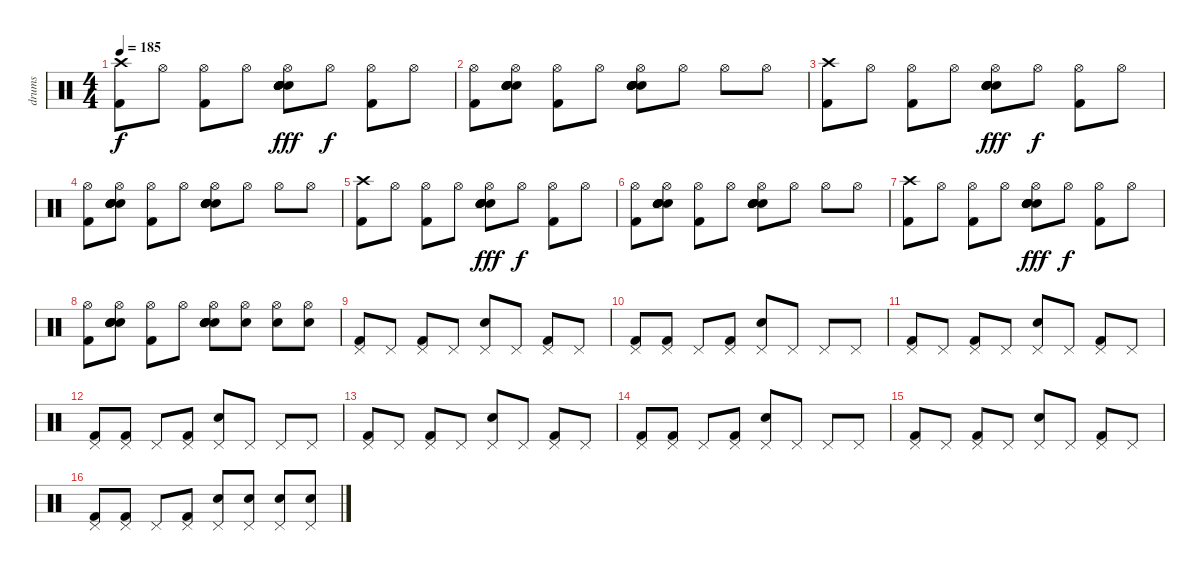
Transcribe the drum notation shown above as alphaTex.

\track ("drums" "drums") {instrument percussion}
\staff {score}
\articulation defaults
\ts (4 4)
\tempo 185
\clef neutral
\ks c
("Crash high (hit)" "Kick (hit) 2").8{dy f} "Hi-Hat (open)".8 ("Hi-Hat (open)" "Kick (hit) 2").8 "Hi-Hat (open)".8 ("Hi-Hat (open)" "Electric Snare (hit)" "Electric Snare (hit)" "Electric Snare (hit)" "Electric Snare (hit)" "Electric Snare (hit)").8{dy fff} "Hi-Hat (open)".8{dy f} ("Hi-Hat (open)" "Kick (hit) 2").8 "Hi-Hat (open)".8 |
("Hi-Hat (open)" "Kick (hit) 2").8 ("Hi-Hat (open)" "Electric Snare (hit)" "Electric Snare (hit)" "Electric Snare (hit)" "Electric Snare (hit)" "Electric Snare (hit)").8 ("Hi-Hat (open)" "Kick (hit) 2").8 "Hi-Hat (open)".8 ("Hi-Hat (open)" "Electric Snare (hit)" "Electric Snare (hit)" "Electric Snare (hit)" "Electric Snare (hit)" "Electric Snare (hit)").8 "Hi-Hat (open)".8 "Hi-Hat (open)".8 "Hi-Hat (open)".8 |
("Crash high (hit)" "Kick (hit) 2").8 "Hi-Hat (open)".8 ("Hi-Hat (open)" "Kick (hit) 2").8 "Hi-Hat (open)".8 ("Hi-Hat (open)" "Electric Snare (hit)" "Electric Snare (hit)" "Electric Snare (hit)" "Electric Snare (hit)" "Electric Snare (hit)").8{dy fff} "Hi-Hat (open)".8{dy f} ("Hi-Hat (open)" "Kick (hit) 2").8 "Hi-Hat (open)".8 |
("Hi-Hat (open)" "Kick (hit) 2").8 ("Hi-Hat (open)" "Electric Snare (hit)" "Electric Snare (hit)" "Electric Snare (hit)" "Electric Snare (hit)" "Electric Snare (hit)").8 ("Hi-Hat (open)" "Kick (hit) 2").8 "Hi-Hat (open)".8 ("Hi-Hat (open)" "Electric Snare (hit)" "Electric Snare (hit)" "Electric Snare (hit)" "Electric Snare (hit)" "Electric Snare (hit)").8 "Hi-Hat (open)".8 "Hi-Hat (open)".8 "Hi-Hat (open)".8 |
("Crash high (hit)" "Kick (hit) 2").8 "Hi-Hat (open)".8 ("Hi-Hat (open)" "Kick (hit) 2").8 "Hi-Hat (open)".8 ("Hi-Hat (open)" "Electric Snare (hit)" "Electric Snare (hit)" "Electric Snare (hit)" "Electric Snare (hit)" "Electric Snare (hit)").8{dy fff} "Hi-Hat (open)".8{dy f} ("Hi-Hat (open)" "Kick (hit) 2").8 "Hi-Hat (open)".8 |
("Hi-Hat (open)" "Kick (hit) 2").8 ("Hi-Hat (open)" "Electric Snare (hit)" "Electric Snare (hit)" "Electric Snare (hit)" "Electric Snare (hit)" "Electric Snare (hit)").8 ("Hi-Hat (open)" "Kick (hit) 2").8 "Hi-Hat (open)".8 ("Hi-Hat (open)" "Electric Snare (hit)" "Electric Snare (hit)" "Electric Snare (hit)" "Electric Snare (hit)" "Electric Snare (hit)").8 "Hi-Hat (open)".8 "Hi-Hat (open)".8 "Hi-Hat (open)".8 |
("Crash high (hit)" "Kick (hit) 2").8 "Hi-Hat (open)".8 ("Hi-Hat (open)" "Kick (hit) 2").8 "Hi-Hat (open)".8 ("Hi-Hat (open)" "Electric Snare (hit)" "Electric Snare (hit)" "Electric Snare (hit)" "Electric Snare (hit)" "Electric Snare (hit)").8{dy fff} "Hi-Hat (open)".8{dy f} ("Hi-Hat (open)" "Kick (hit) 2").8 "Hi-Hat (open)".8 |
("Hi-Hat (open)" "Kick (hit) 2").8 ("Hi-Hat (open)" "Electric Snare (hit)" "Electric Snare (hit)" "Electric Snare (hit)" "Electric Snare (hit)" "Electric Snare (hit)").8 ("Hi-Hat (open)" "Kick (hit) 2").8 "Hi-Hat (open)".8 ("Hi-Hat (open)" "Electric Snare (hit)" "Electric Snare (hit)" "Electric Snare (hit)" "Electric Snare (hit)" "Electric Snare (hit)").8 ("Hi-Hat (open)" "Electric Snare (hit)").8 ("Hi-Hat (open)" "Electric Snare (hit)").8 ("Hi-Hat (open)" "Electric Snare (hit)").8 |
("Pedal Hi-Hat (hit)" "Kick (hit) 2").8 "Pedal Hi-Hat (hit)".8 ("Pedal Hi-Hat (hit)" "Kick (hit) 2").8 "Pedal Hi-Hat (hit)".8 ("Pedal Hi-Hat (hit)" "Electric Snare (hit)").8 "Pedal Hi-Hat (hit)".8 ("Pedal Hi-Hat (hit)" "Kick (hit) 2").8 "Pedal Hi-Hat (hit)".8 |
("Pedal Hi-Hat (hit)" "Kick (hit) 2").8 ("Pedal Hi-Hat (hit)" "Kick (hit) 2").8 "Pedal Hi-Hat (hit)".8 ("Pedal Hi-Hat (hit)" "Kick (hit) 2").8 ("Pedal Hi-Hat (hit)" "Electric Snare (hit)").8 "Pedal Hi-Hat (hit)".8 "Pedal Hi-Hat (hit)".8 "Pedal Hi-Hat (hit)".8 |
("Pedal Hi-Hat (hit)" "Kick (hit) 2").8 "Pedal Hi-Hat (hit)".8 ("Pedal Hi-Hat (hit)" "Kick (hit) 2").8 "Pedal Hi-Hat (hit)".8 ("Pedal Hi-Hat (hit)" "Electric Snare (hit)").8 "Pedal Hi-Hat (hit)".8 ("Pedal Hi-Hat (hit)" "Kick (hit) 2").8 "Pedal Hi-Hat (hit)".8 |
("Pedal Hi-Hat (hit)" "Kick (hit) 2").8 ("Pedal Hi-Hat (hit)" "Kick (hit) 2").8 "Pedal Hi-Hat (hit)".8 ("Pedal Hi-Hat (hit)" "Kick (hit) 2").8 ("Pedal Hi-Hat (hit)" "Electric Snare (hit)").8 "Pedal Hi-Hat (hit)".8 "Pedal Hi-Hat (hit)".8 "Pedal Hi-Hat (hit)".8 |
("Pedal Hi-Hat (hit)" "Kick (hit) 2").8 "Pedal Hi-Hat (hit)".8 ("Pedal Hi-Hat (hit)" "Kick (hit) 2").8 "Pedal Hi-Hat (hit)".8 ("Pedal Hi-Hat (hit)" "Electric Snare (hit)").8 "Pedal Hi-Hat (hit)".8 ("Pedal Hi-Hat (hit)" "Kick (hit) 2").8 "Pedal Hi-Hat (hit)".8 |
("Pedal Hi-Hat (hit)" "Kick (hit) 2").8 ("Pedal Hi-Hat (hit)" "Kick (hit) 2").8 "Pedal Hi-Hat (hit)".8 ("Pedal Hi-Hat (hit)" "Kick (hit) 2").8 ("Pedal Hi-Hat (hit)" "Electric Snare (hit)").8 "Pedal Hi-Hat (hit)".8 "Pedal Hi-Hat (hit)".8 "Pedal Hi-Hat (hit)".8 |
("Pedal Hi-Hat (hit)" "Kick (hit) 2").8 "Pedal Hi-Hat (hit)".8 ("Pedal Hi-Hat (hit)" "Kick (hit) 2").8 "Pedal Hi-Hat (hit)".8 ("Pedal Hi-Hat (hit)" "Electric Snare (hit)").8 "Pedal Hi-Hat (hit)".8 ("Pedal Hi-Hat (hit)" "Kick (hit) 2").8 "Pedal Hi-Hat (hit)".8 |
("Pedal Hi-Hat (hit)" "Kick (hit) 2").8 ("Pedal Hi-Hat (hit)" "Kick (hit) 2").8 "Pedal Hi-Hat (hit)".8 ("Pedal Hi-Hat (hit)" "Kick (hit) 2").8 ("Pedal Hi-Hat (hit)" "Electric Snare (hit)").8 ("Pedal Hi-Hat (hit)" "Electric Snare (hit)").8 ("Pedal Hi-Hat (hit)" "Electric Snare (hit)").8 ("Pedal Hi-Hat (hit)" "Electric Snare (hit)").8
